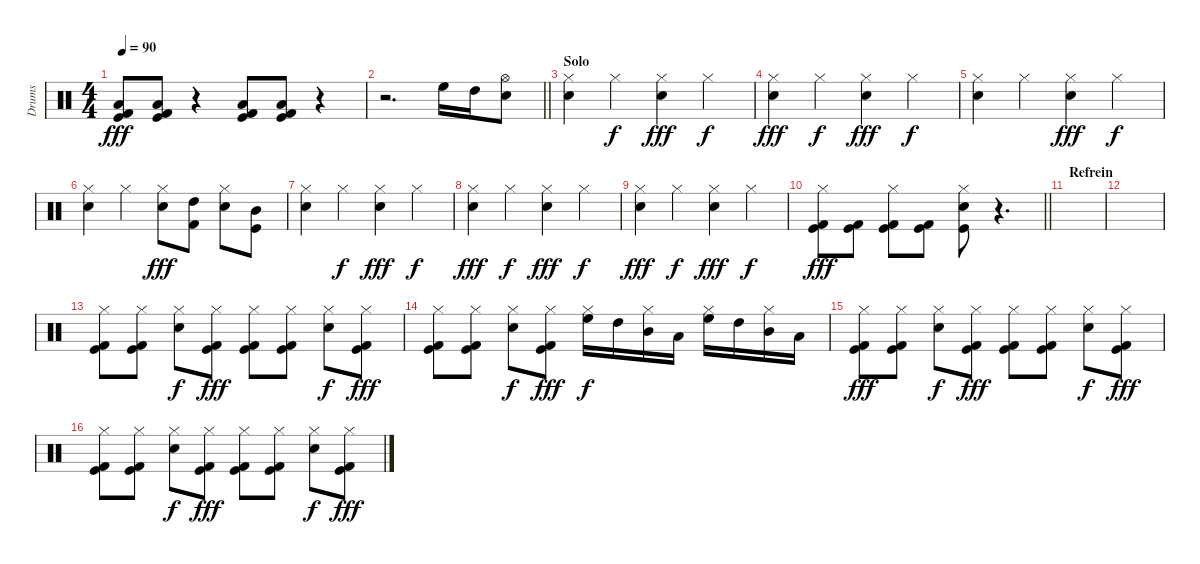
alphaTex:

\track ("Drums" "Drums") {instrument percussion}
\staff {score}
\articulation defaults
\ts (4 4)
\tempo 90
\clef neutral
\ks c
("Low Tom (hit)" "Kick (hit) 2" "Kick (hit)").8{dy fff} ("Low Tom (hit)" "Kick (hit) 2" "Kick (hit)").8 r.4 ("Low Tom (hit)" "Kick (hit) 2" "Kick (hit)").8 ("Low Tom (hit)" "Kick (hit) 2" "Kick (hit)").8 r.4 |
\barLineRight lightlight
r.2{d} "High Floor Tom (hit)".16 "High Tom (hit)".16 ("Hi-Hat (open)" "Snare (hit) 2").8 |
\section ("" "Solo")
("Hi-Hat (closed)" "Snare (hit) 2").4 "Hi-Hat (closed)".4{dy f} ("Hi-Hat (closed)" "Electric Snare (hit)").4{dy fff} "Hi-Hat (closed)".4{dy f} |
("Hi-Hat (closed)" "Snare (hit) 2").4{dy fff} "Hi-Hat (closed)".4{dy f} ("Hi-Hat (closed)" "Electric Snare (hit)").4{dy fff} "Hi-Hat (closed)".4{dy f} |
("Hi-Hat (closed)" "Snare (hit) 2").4 "Hi-Hat (closed)".4 ("Hi-Hat (closed)" "Electric Snare (hit)").4{dy fff} "Hi-Hat (closed)".4{dy f} |
("Hi-Hat (closed)" "Snare (hit) 2").4 "Hi-Hat (closed)".4 ("Hi-Hat (closed)" "Electric Snare (hit)").8{dy fff} ("High Tom (hit)" "Kick (hit) 2").8 ("Hi-Hat (closed)" "Snare (hit) 2").8 ("Mid Tom (hit)" "Kick (hit)").8 |
("Hi-Hat (closed)" "Snare (hit) 2").4 "Hi-Hat (closed)".4{dy f} ("Hi-Hat (closed)" "Electric Snare (hit)").4{dy fff} "Hi-Hat (closed)".4{dy f} |
("Hi-Hat (closed)" "Snare (hit) 2").4{dy fff} "Hi-Hat (closed)".4{dy f} ("Hi-Hat (closed)" "Electric Snare (hit)").4{dy fff} "Hi-Hat (closed)".4{dy f} |
("Hi-Hat (closed)" "Snare (hit) 2").4{dy fff} "Hi-Hat (closed)".4{dy f} ("Hi-Hat (closed)" "Electric Snare (hit)").4{dy fff} "Hi-Hat (closed)".4{dy f} |
\barLineRight lightlight
("Hi-Hat (closed)" "Kick (hit) 2" "Kick (hit)").8{dy fff} ("Kick (hit) 2" "Kick (hit)").8 ("Hi-Hat (closed)" "Kick (hit) 2" "Kick (hit)").8 ("Kick (hit) 2" "Kick (hit)").8 ("Hi-Hat (closed)" "Snare (hit) 2" "Kick (hit)").8 r.4{d} |
\section ("" "Refrein")
|
|
("Hi-Hat (closed)" "Kick (hit) 2" "Kick (hit)").8 ("Hi-Hat (closed)" "Kick (hit) 2" "Kick (hit)").8 ("Hi-Hat (closed)" "Snare (hit) 2").8{dy f} ("Hi-Hat (closed)" "Kick (hit) 2" "Kick (hit)").8{dy fff} ("Hi-Hat (closed)" "Kick (hit) 2" "Kick (hit)").8 ("Hi-Hat (closed)" "Kick (hit) 2" "Kick (hit)").8 ("Hi-Hat (closed)" "Snare (hit) 2").8{dy f} ("Hi-Hat (closed)" "Kick (hit) 2" "Kick (hit)").8{dy fff} |
("Hi-Hat (closed)" "Kick (hit) 2" "Kick (hit)").8 ("Hi-Hat (closed)" "Kick (hit) 2" "Kick (hit)").8 ("Hi-Hat (closed)" "Snare (hit) 2").8{dy f} ("Hi-Hat (closed)" "Kick (hit) 2" "Kick (hit)").8{dy fff} ("Hi-Hat (closed)" "High Floor Tom (hit)").16{dy f} "High Tom (hit)".16 ("Hi-Hat (closed)" "Mid Tom (hit)").16 "Low Tom (hit)".16 ("Hi-Hat (closed)" "High Floor Tom (hit)").16 "High Tom (hit)".16 ("Hi-Hat (closed)" "Mid Tom (hit)").16 "Low Tom (hit)".16 |
("Hi-Hat (closed)" "Kick (hit) 2" "Kick (hit)").8{dy fff} ("Hi-Hat (closed)" "Kick (hit) 2" "Kick (hit)").8 ("Hi-Hat (closed)" "Snare (hit) 2").8{dy f} ("Hi-Hat (closed)" "Kick (hit) 2" "Kick (hit)").8{dy fff} ("Hi-Hat (closed)" "Kick (hit) 2" "Kick (hit)").8 ("Hi-Hat (closed)" "Kick (hit) 2" "Kick (hit)").8 ("Hi-Hat (closed)" "Snare (hit) 2").8{dy f} ("Hi-Hat (closed)" "Kick (hit) 2" "Kick (hit)").8{dy fff} |
("Hi-Hat (closed)" "Kick (hit) 2" "Kick (hit)").8 ("Hi-Hat (closed)" "Kick (hit) 2" "Kick (hit)").8 ("Hi-Hat (closed)" "Snare (hit) 2").8{dy f} ("Hi-Hat (closed)" "Kick (hit) 2" "Kick (hit)").8{dy fff} ("Hi-Hat (closed)" "Kick (hit) 2" "Kick (hit)").8 ("Hi-Hat (closed)" "Kick (hit) 2" "Kick (hit)").8 ("Hi-Hat (closed)" "Snare (hit) 2").8{dy f} ("Hi-Hat (closed)" "Kick (hit) 2" "Kick (hit)").8{dy fff}
